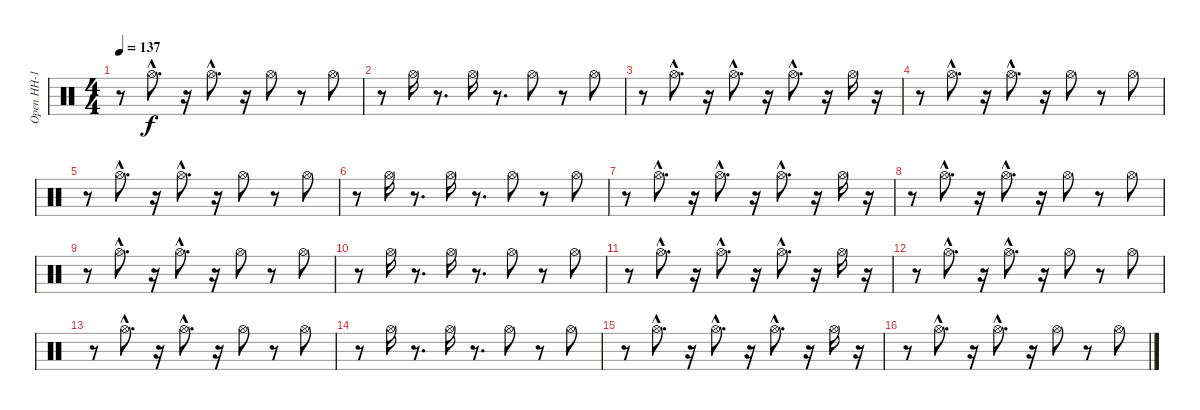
\track ("Open HH-1" "Open HH-1") {instrument percussion}
\staff {score}
\articulation defaults
\ts (4 4)
\tempo 137
\clef neutral
\ks c
r.8{dy f} "Hi-Hat (open)"{hac}.8{d} r.16 "Hi-Hat (open)"{hac}.8{d} r.16 "Hi-Hat (open)".8 r.8 "Hi-Hat (open)".8 |
r.8 "Hi-Hat (open)".16 r.8{d} "Hi-Hat (open)".16 r.8{d} "Hi-Hat (open)".8 r.8 "Hi-Hat (open)".8 |
r.8 "Hi-Hat (open)"{hac}.8{d} r.16 "Hi-Hat (open)"{hac}.8{d} r.16 "Hi-Hat (open)"{hac}.8{d} r.16 "Hi-Hat (open)".16 r.16 |
r.8 "Hi-Hat (open)"{hac}.8{d} r.16 "Hi-Hat (open)"{hac}.8{d} r.16 "Hi-Hat (open)".8 r.8 "Hi-Hat (open)".8 |
r.8 "Hi-Hat (open)"{hac}.8{d} r.16 "Hi-Hat (open)"{hac}.8{d} r.16 "Hi-Hat (open)".8 r.8 "Hi-Hat (open)".8 |
r.8 "Hi-Hat (open)".16 r.8{d} "Hi-Hat (open)".16 r.8{d} "Hi-Hat (open)".8 r.8 "Hi-Hat (open)".8 |
r.8 "Hi-Hat (open)"{hac}.8{d} r.16 "Hi-Hat (open)"{hac}.8{d} r.16 "Hi-Hat (open)"{hac}.8{d} r.16 "Hi-Hat (open)".16 r.16 |
r.8 "Hi-Hat (open)"{hac}.8{d} r.16 "Hi-Hat (open)"{hac}.8{d} r.16 "Hi-Hat (open)".8 r.8 "Hi-Hat (open)".8 |
r.8 "Hi-Hat (open)"{hac}.8{d} r.16 "Hi-Hat (open)"{hac}.8{d} r.16 "Hi-Hat (open)".8 r.8 "Hi-Hat (open)".8 |
r.8 "Hi-Hat (open)".16 r.8{d} "Hi-Hat (open)".16 r.8{d} "Hi-Hat (open)".8 r.8 "Hi-Hat (open)".8 |
r.8 "Hi-Hat (open)"{hac}.8{d} r.16 "Hi-Hat (open)"{hac}.8{d} r.16 "Hi-Hat (open)"{hac}.8{d} r.16 "Hi-Hat (open)".16 r.16 |
r.8 "Hi-Hat (open)"{hac}.8{d} r.16 "Hi-Hat (open)"{hac}.8{d} r.16 "Hi-Hat (open)".8 r.8 "Hi-Hat (open)".8 |
r.8 "Hi-Hat (open)"{hac}.8{d} r.16 "Hi-Hat (open)"{hac}.8{d} r.16 "Hi-Hat (open)".8 r.8 "Hi-Hat (open)".8 |
r.8 "Hi-Hat (open)".16 r.8{d} "Hi-Hat (open)".16 r.8{d} "Hi-Hat (open)".8 r.8 "Hi-Hat (open)".8 |
r.8 "Hi-Hat (open)"{hac}.8{d} r.16 "Hi-Hat (open)"{hac}.8{d} r.16 "Hi-Hat (open)"{hac}.8{d} r.16 "Hi-Hat (open)".16 r.16 |
r.8 "Hi-Hat (open)"{hac}.8{d} r.16 "Hi-Hat (open)"{hac}.8{d} r.16 "Hi-Hat (open)".8 r.8 "Hi-Hat (open)".8
